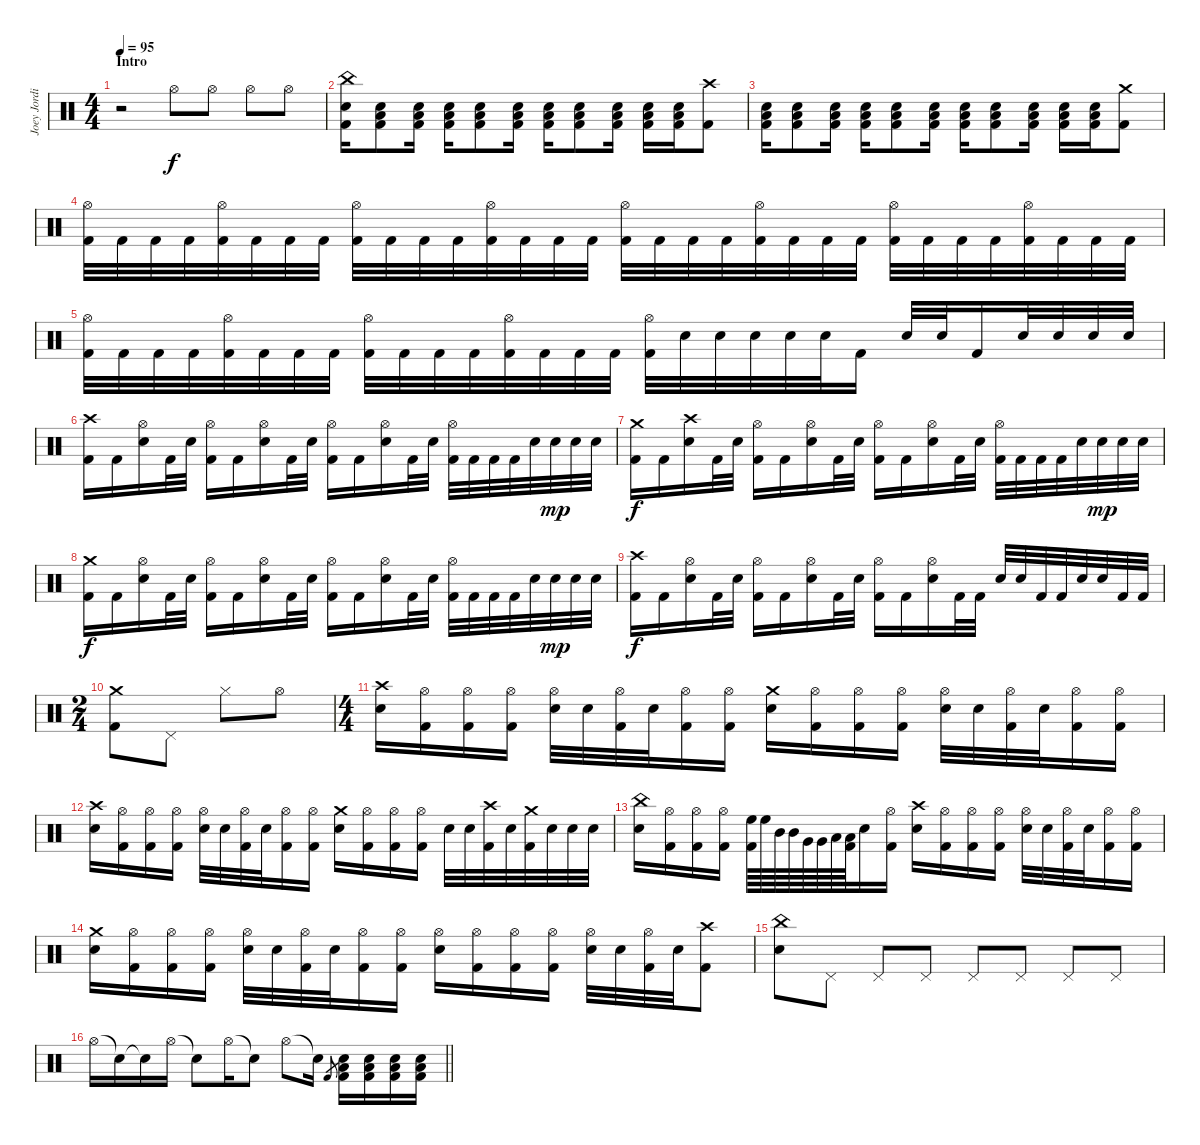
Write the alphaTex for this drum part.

\track ("Joey Jordison" "Joey Jordi") {instrument percussion}
\staff {score}
\articulation defaults
\ts (4 4)
\section ("" "Intro")
\tempo 95
\clef neutral
\ks c
r.2{dy f} "Hi-Hat (open)".8 "Hi-Hat (open)".8 "Hi-Hat (open)".8 "Hi-Hat (open)".8 |
("China (hit)" "Electric Snare (hit)" "Kick (hit) 2").16 ("Low Floor Tom (hit)" "Electric Snare (hit)" "Kick (hit) 2").8 ("Low Floor Tom (hit)" "Electric Snare (hit)" "Kick (hit) 2").16 ("Low Floor Tom (hit)" "Electric Snare (hit)" "Kick (hit) 2").16 ("Low Floor Tom (hit)" "Electric Snare (hit)" "Kick (hit) 2").8 ("Low Floor Tom (hit)" "Electric Snare (hit)" "Kick (hit) 2").16 ("Low Floor Tom (hit)" "Electric Snare (hit)" "Kick (hit) 2").16 ("Low Floor Tom (hit)" "Electric Snare (hit)" "Kick (hit) 2").8 ("Low Floor Tom (hit)" "Electric Snare (hit)" "Kick (hit) 2").16 ("Low Floor Tom (hit)" "Electric Snare (hit)" "Kick (hit) 2").16 ("Low Floor Tom (hit)" "Electric Snare (hit)" "Kick (hit) 2").16 ("Crash high (hit)" "Kick (hit) 2").8 |
("Low Floor Tom (hit)" "Electric Snare (hit)" "Kick (hit) 2").16 ("Low Floor Tom (hit)" "Electric Snare (hit)" "Kick (hit) 2").8 ("Low Floor Tom (hit)" "Electric Snare (hit)" "Kick (hit) 2").16 ("Low Floor Tom (hit)" "Electric Snare (hit)" "Kick (hit) 2").16 ("Low Floor Tom (hit)" "Electric Snare (hit)" "Kick (hit) 2").8 ("Low Floor Tom (hit)" "Electric Snare (hit)" "Kick (hit) 2").16 ("Low Floor Tom (hit)" "Electric Snare (hit)" "Kick (hit) 2").16 ("Low Floor Tom (hit)" "Electric Snare (hit)" "Kick (hit) 2").8 ("Low Floor Tom (hit)" "Electric Snare (hit)" "Kick (hit) 2").16 ("Low Floor Tom (hit)" "Electric Snare (hit)" "Kick (hit) 2").16 ("Low Floor Tom (hit)" "Electric Snare (hit)" "Kick (hit) 2").16 ("Crash medium (hit)" "Kick (hit) 2").8 |
("Hi-Hat (open)" "Kick (hit) 2").32 "Kick (hit) 2".32 "Kick (hit) 2".32 "Kick (hit) 2".32 ("Hi-Hat (open)" "Kick (hit) 2").32 "Kick (hit) 2".32 "Kick (hit) 2".32 "Kick (hit) 2".32 ("Hi-Hat (open)" "Kick (hit) 2").32 "Kick (hit) 2".32 "Kick (hit) 2".32 "Kick (hit) 2".32 ("Hi-Hat (open)" "Kick (hit) 2").32 "Kick (hit) 2".32 "Kick (hit) 2".32 "Kick (hit) 2".32 ("Hi-Hat (open)" "Kick (hit) 2").32 "Kick (hit) 2".32 "Kick (hit) 2".32 "Kick (hit) 2".32 ("Hi-Hat (open)" "Kick (hit) 2").32 "Kick (hit) 2".32 "Kick (hit) 2".32 "Kick (hit) 2".32 ("Hi-Hat (open)" "Kick (hit) 2").32 "Kick (hit) 2".32 "Kick (hit) 2".32 "Kick (hit) 2".32 ("Hi-Hat (open)" "Kick (hit) 2").32 "Kick (hit) 2".32 "Kick (hit) 2".32 "Kick (hit) 2".32 |
("Hi-Hat (open)" "Kick (hit) 2").32 "Kick (hit) 2".32 "Kick (hit) 2".32 "Kick (hit) 2".32 ("Hi-Hat (open)" "Kick (hit) 2").32 "Kick (hit) 2".32 "Kick (hit) 2".32 "Kick (hit) 2".32 ("Hi-Hat (open)" "Kick (hit) 2").32 "Kick (hit) 2".32 "Kick (hit) 2".32 "Kick (hit) 2".32 ("Hi-Hat (open)" "Kick (hit) 2").32 "Kick (hit) 2".32 "Kick (hit) 2".32 "Kick (hit) 2".32 ("Hi-Hat (open)" "Kick (hit) 2").32 "Electric Snare (hit)".32 "Electric Snare (hit)".32 "Electric Snare (hit)".32 "Electric Snare (hit)".32 "Electric Snare (hit)".32 "Kick (hit) 2".16 "Electric Snare (hit)".32 "Electric Snare (hit)".32 "Kick (hit) 2".16 "Electric Snare (hit)".32 "Electric Snare (hit)".32 "Electric Snare (hit)".32 "Electric Snare (hit)".32 |
("Crash high (hit)" "Kick (hit) 2").16 "Kick (hit) 2".16 ("Hi-Hat (open)" "Electric Snare (hit)").16 "Kick (hit) 2".32 "Electric Snare (hit)".32 ("Hi-Hat (open)" "Kick (hit) 2").16 "Kick (hit) 2".16 ("Hi-Hat (open)" "Electric Snare (hit)").16 "Kick (hit) 2".32 "Electric Snare (hit)".32 ("Hi-Hat (open)" "Kick (hit) 2").16 "Kick (hit) 2".16 ("Hi-Hat (open)" "Electric Snare (hit)").16 "Kick (hit) 2".32 "Electric Snare (hit)".32 ("Hi-Hat (open)" "Kick (hit) 2").32 "Kick (hit) 2".32 "Kick (hit) 2".32 "Kick (hit) 2".32 "Electric Snare (hit)".32 "Electric Snare (hit)".32{dy mp} "Electric Snare (hit)".32 "Electric Snare (hit)".32 |
("Crash medium (hit)" "Kick (hit) 2").16{dy f} "Kick (hit) 2".16 ("Crash high (hit)" "Electric Snare (hit)").16 "Kick (hit) 2".32 "Electric Snare (hit)".32 ("Hi-Hat (open)" "Kick (hit) 2").16 "Kick (hit) 2".16 ("Hi-Hat (open)" "Electric Snare (hit)").16 "Kick (hit) 2".32 "Electric Snare (hit)".32 ("Hi-Hat (open)" "Kick (hit) 2").16 "Kick (hit) 2".16 ("Hi-Hat (open)" "Electric Snare (hit)").16 "Kick (hit) 2".32 "Electric Snare (hit)".32 ("Hi-Hat (open)" "Kick (hit) 2").32 "Kick (hit) 2".32 "Kick (hit) 2".32 "Kick (hit) 2".32 "Electric Snare (hit)".32 "Electric Snare (hit)".32{dy mp} "Electric Snare (hit)".32 "Electric Snare (hit)".32 |
("Crash medium (hit)" "Kick (hit) 2").16{dy f} "Kick (hit) 2".16 ("Hi-Hat (open)" "Electric Snare (hit)").16 "Kick (hit) 2".32 "Electric Snare (hit)".32 ("Hi-Hat (open)" "Kick (hit) 2").16 "Kick (hit) 2".16 ("Hi-Hat (open)" "Electric Snare (hit)").16 "Kick (hit) 2".32 "Electric Snare (hit)".32 ("Hi-Hat (open)" "Kick (hit) 2").16 "Kick (hit) 2".16 ("Hi-Hat (open)" "Electric Snare (hit)").16 "Kick (hit) 2".32 "Electric Snare (hit)".32 ("Hi-Hat (open)" "Kick (hit) 2").32 "Kick (hit) 2".32 "Kick (hit) 2".32 "Kick (hit) 2".32 "Electric Snare (hit)".32 "Electric Snare (hit)".32{dy mp} "Electric Snare (hit)".32 "Electric Snare (hit)".32 |
("Crash high (hit)" "Kick (hit) 2").16{dy f} "Kick (hit) 2".16 ("Hi-Hat (open)" "Electric Snare (hit)").16 "Kick (hit) 2".32 "Electric Snare (hit)".32 ("Hi-Hat (open)" "Kick (hit) 2").16 "Kick (hit) 2".16 ("Hi-Hat (open)" "Electric Snare (hit)").16 "Kick (hit) 2".32 "Electric Snare (hit)".32 ("Hi-Hat (open)" "Kick (hit) 2").16 "Kick (hit) 2".16 ("Hi-Hat (open)" "Electric Snare (hit)").16 "Kick (hit) 2".32 "Kick (hit) 2".32 "Electric Snare (hit)".32 "Electric Snare (hit)".32 "Kick (hit) 2".32 "Kick (hit) 2".32 "Electric Snare (hit)".32 "Electric Snare (hit)".32 "Kick (hit) 2".32 "Kick (hit) 2".32 |
\ts (2 4)
("Crash medium (hit)" "Kick (hit) 2").8 "Pedal Hi-Hat (hit)".8 "Hi-Hat (closed)".8 "Hi-Hat (open)".8 |
\ts (4 4)
("Crash high (hit)" "Electric Snare (hit)").16 ("Hi-Hat (open)" "Kick (hit) 2").16 ("Hi-Hat (open)" "Kick (hit) 2").16 ("Hi-Hat (open)" "Kick (hit) 2").16 ("Hi-Hat (open)" "Electric Snare (hit)").32 "Electric Snare (hit)".32 ("Hi-Hat (open)" "Kick (hit) 2").32 "Electric Snare (hit)".32 ("Hi-Hat (open)" "Kick (hit) 2").16 ("Hi-Hat (open)" "Kick (hit) 2").16 ("Crash medium (hit)" "Electric Snare (hit)").16 ("Hi-Hat (open)" "Kick (hit) 2").16 ("Hi-Hat (open)" "Kick (hit) 2").16 ("Hi-Hat (open)" "Kick (hit) 2").16 ("Hi-Hat (open)" "Electric Snare (hit)").32 "Electric Snare (hit)".32 ("Hi-Hat (open)" "Kick (hit) 2").32 "Electric Snare (hit)".32 ("Hi-Hat (open)" "Kick (hit) 2").16 ("Hi-Hat (open)" "Kick (hit) 2").16 |
("Crash high (hit)" "Electric Snare (hit)").16 ("Hi-Hat (open)" "Kick (hit) 2").16 ("Hi-Hat (open)" "Kick (hit) 2").16 ("Hi-Hat (open)" "Kick (hit) 2").16 ("Hi-Hat (open)" "Electric Snare (hit)").32 "Electric Snare (hit)".32 ("Hi-Hat (open)" "Kick (hit) 2").32 "Electric Snare (hit)".32 ("Hi-Hat (open)" "Kick (hit) 2").16 ("Hi-Hat (open)" "Kick (hit) 2").16 ("Crash medium (hit)" "Electric Snare (hit)").16 ("Hi-Hat (open)" "Kick (hit) 2").16 ("Hi-Hat (open)" "Kick (hit) 2").16 ("Hi-Hat (open)" "Kick (hit) 2").16 "Electric Snare (hit)".32 "Electric Snare (hit)".32 ("Crash high (hit)" "Kick (hit) 2").32 "Electric Snare (hit)".32 ("Crash medium (hit)" "Kick (hit) 2").32 "Electric Snare (hit)".32 "Electric Snare (hit)".32 "Electric Snare (hit)".32 |
("China (hit)" "Electric Snare (hit)").16 ("Hi-Hat (open)" "Kick (hit) 2").16 ("Hi-Hat (open)" "Kick (hit) 2").16 ("Hi-Hat (open)" "Kick (hit) 2").16 ("High Floor Tom (hit)" "Kick (hit) 2").64 "High Floor Tom (hit)".64 "Mid Tom (hit)".64 "Mid Tom (hit)".64 "Very Low Tom (hit)".64 "Very Low Tom (hit)".64 "Low Floor Tom (hit)".64 ("Low Floor Tom (hit)" "Kick (hit) 2").64 "Electric Snare (hit)".16 ("Hi-Hat (open)" "Kick (hit) 2").16 ("Crash high (hit)" "Electric Snare (hit)").16 ("Hi-Hat (open)" "Kick (hit) 2").16 ("Hi-Hat (open)" "Kick (hit) 2").16 ("Hi-Hat (open)" "Kick (hit) 2").16 ("Hi-Hat (open)" "Electric Snare (hit)").32 "Electric Snare (hit)".32 ("Hi-Hat (open)" "Kick (hit) 2").32 "Electric Snare (hit)".32 ("Hi-Hat (open)" "Kick (hit) 2").16 ("Hi-Hat (open)" "Kick (hit) 2").16 |
("Crash medium (hit)" "Electric Snare (hit)").16 ("Hi-Hat (open)" "Kick (hit) 2").16 ("Hi-Hat (open)" "Kick (hit) 2").16 ("Hi-Hat (open)" "Kick (hit) 2").16 ("Hi-Hat (open)" "Electric Snare (hit)").32 "Electric Snare (hit)".32 ("Hi-Hat (open)" "Kick (hit) 2").32 "Electric Snare (hit)".32 ("Hi-Hat (open)" "Kick (hit) 2").16 ("Hi-Hat (open)" "Kick (hit) 2").16 ("Hi-Hat (open)" "Electric Snare (hit)").16 ("Hi-Hat (open)" "Kick (hit) 2").16 ("Hi-Hat (open)" "Kick (hit) 2").16 ("Hi-Hat (open)" "Kick (hit) 2").16 ("Hi-Hat (open)" "Electric Snare (hit)").32 "Electric Snare (hit)".32 ("Hi-Hat (open)" "Kick (hit) 2").32 "Electric Snare (hit)".32 ("Crash high (hit)" "Kick (hit) 2").8 |
("China (hit)" "Electric Snare (hit)").8 "Pedal Hi-Hat (hit)".8 "Pedal Hi-Hat (hit)".8 "Pedal Hi-Hat (hit)".8 "Pedal Hi-Hat (hit)".8 "Pedal Hi-Hat (hit)".8 "Pedal Hi-Hat (hit)".8 "Pedal Hi-Hat (hit)".8 |
\barLineRight lightlight "Hi-Hat (open)".16 "Snare (hit)"{t}.16 "Snare (hit)"{t}.16 "Hi-Hat (open)".16 "Snare (hit)"{t}.8 "Hi-Hat (open)".16 "Snare (hit)"{t}.8 "Hi-Hat (open)".8 "Snare (hit)"{t}.16 "Kick (hit) 2".8{gr}
("Low Floor Tom (hit)" "Electric Snare (hit)" "Kick (hit) 2").16 ("Low Floor Tom (hit)" "Electric Snare (hit)" "Kick (hit) 2").16 ("Low Floor Tom (hit)" "Electric Snare (hit)" "Kick (hit) 2").16 ("Low Floor Tom (hit)" "Electric Snare (hit)" "Kick (hit) 2").16
